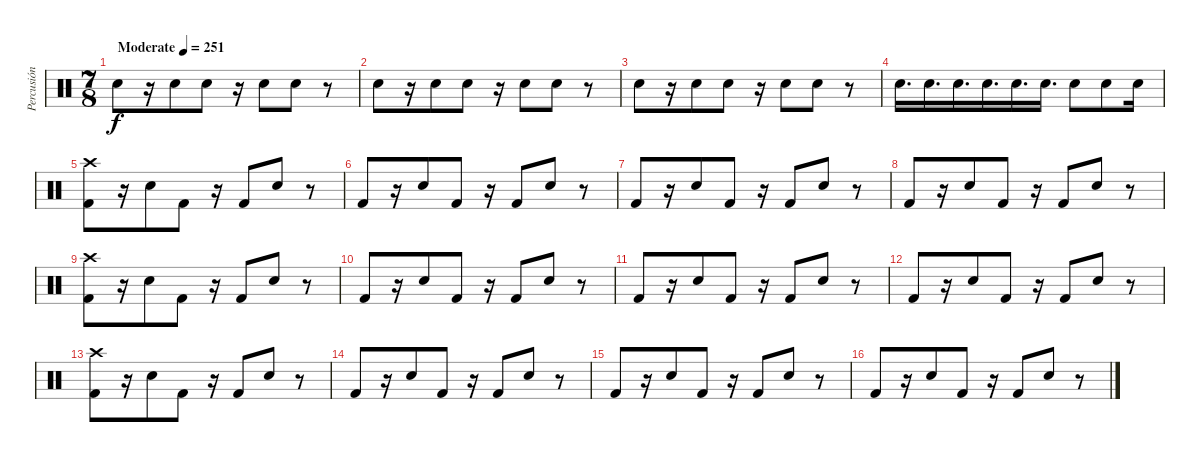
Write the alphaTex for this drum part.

\track ("Percusión" "Percusión") {instrument percussion}
\staff {score}
\articulation defaults
\ts (7 8)
\tempo (251 "Moderate")
\clef neutral
\ks c "Snare (hit) 2".8{dy f}
r.16 "Snare (hit) 2".8 "Snare (hit) 2".8 r.16 "Snare (hit) 2".8 "Snare (hit) 2".8 r.8 |
"Snare (hit) 2".8 r.16 "Snare (hit) 2".8 "Snare (hit) 2".8 r.16 "Snare (hit) 2".8 "Snare (hit) 2".8 r.8 |
"Snare (hit) 2".8 r.16 "Snare (hit) 2".8 "Snare (hit) 2".8 r.16 "Snare (hit) 2".8 "Snare (hit) 2".8 r.8 |
"Snare (hit) 2".16{d} "Snare (hit) 2".16{d} "Snare (hit) 2".16{d} "Snare (hit) 2".16{d} "Snare (hit) 2".16{d} "Snare (hit) 2".16{d} "Snare (hit) 2".8 "Snare (hit) 2".8 "Snare (hit) 2".16 |
("Crash high (hit)" "Kick (hit) 2").8 r.16 "Snare (hit) 2".8 "Kick (hit) 2".8 r.16 "Kick (hit) 2".8 "Snare (hit) 2".8 r.8 |
"Kick (hit) 2".8 r.16 "Snare (hit) 2".8 "Kick (hit) 2".8 r.16 "Kick (hit) 2".8 "Snare (hit) 2".8 r.8 |
"Kick (hit) 2".8 r.16 "Snare (hit) 2".8 "Kick (hit) 2".8 r.16 "Kick (hit) 2".8 "Snare (hit) 2".8 r.8 |
"Kick (hit) 2".8 r.16 "Snare (hit) 2".8 "Kick (hit) 2".8 r.16 "Kick (hit) 2".8 "Snare (hit) 2".8 r.8 |
("Crash high (hit)" "Kick (hit) 2").8 r.16 "Snare (hit) 2".8 "Kick (hit) 2".8 r.16 "Kick (hit) 2".8 "Snare (hit) 2".8 r.8 |
"Kick (hit) 2".8 r.16 "Snare (hit) 2".8 "Kick (hit) 2".8 r.16 "Kick (hit) 2".8 "Snare (hit) 2".8 r.8 |
"Kick (hit) 2".8 r.16 "Snare (hit) 2".8 "Kick (hit) 2".8 r.16 "Kick (hit) 2".8 "Snare (hit) 2".8 r.8 |
"Kick (hit) 2".8 r.16 "Snare (hit) 2".8 "Kick (hit) 2".8 r.16 "Kick (hit) 2".8 "Snare (hit) 2".8 r.8 |
("Crash high (hit)" "Kick (hit) 2").8 r.16 "Snare (hit) 2".8 "Kick (hit) 2".8 r.16 "Kick (hit) 2".8 "Snare (hit) 2".8 r.8 |
"Kick (hit) 2".8 r.16 "Snare (hit) 2".8 "Kick (hit) 2".8 r.16 "Kick (hit) 2".8 "Snare (hit) 2".8 r.8 |
"Kick (hit) 2".8 r.16 "Snare (hit) 2".8 "Kick (hit) 2".8 r.16 "Kick (hit) 2".8 "Snare (hit) 2".8 r.8 |
"Kick (hit) 2".8 r.16 "Snare (hit) 2".8 "Kick (hit) 2".8 r.16 "Kick (hit) 2".8 "Snare (hit) 2".8 r.8
